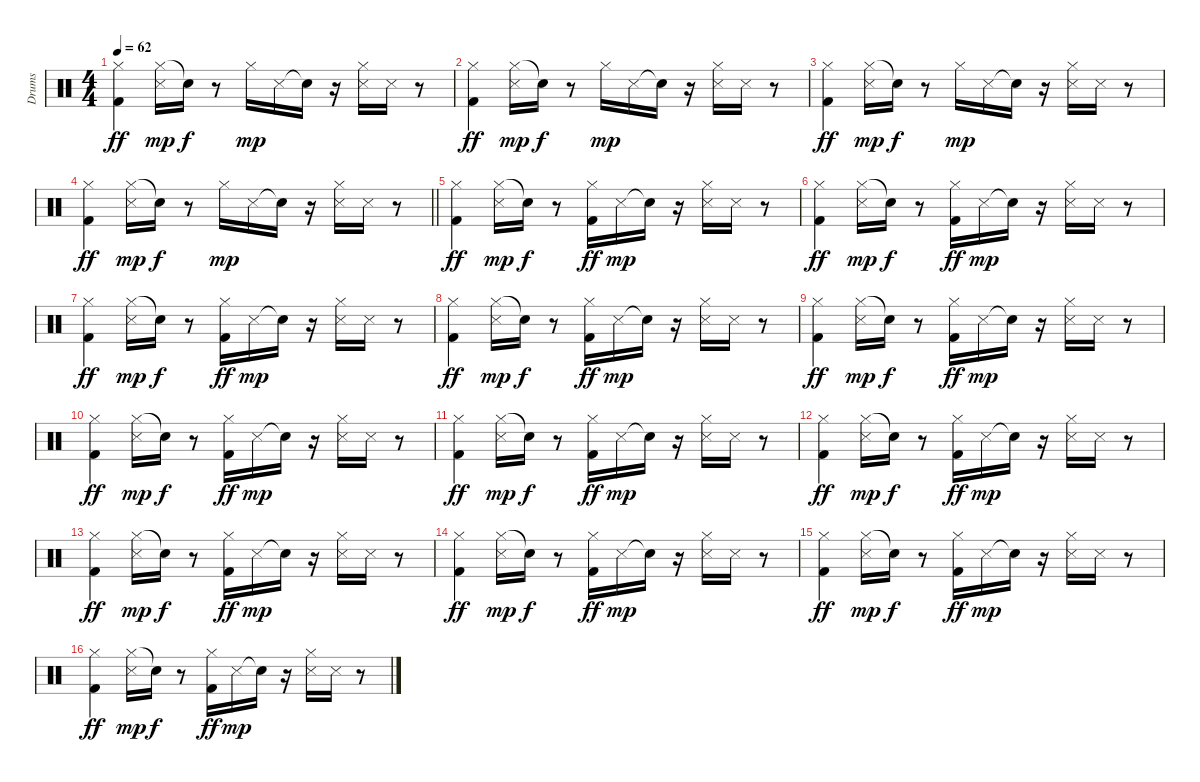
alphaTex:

\track ("Drums" "Drums") {instrument percussion}
\staff {score}
\articulation defaults
\ts (4 4)
\tempo 62
\clef neutral
\ks c
("Hi-Hat (closed)" "Kick (hit) 2").4{dy ff} ("Hi-Hat (closed)" "Snare (side stick) 3").16{dy mp} "Snare (hit)"{t}.16{dy f} r.8 "Hi-Hat (closed)".16{dy mp} "Snare (side stick) 3".16 "Snare (hit)"{t}.16 r.16 ("Hi-Hat (closed)" "Snare (side stick) 3").16 "Snare (side stick) 3".16 r.8 |
("Hi-Hat (closed)" "Kick (hit) 2").4{dy ff} ("Hi-Hat (closed)" "Snare (side stick) 3").16{dy mp} "Snare (hit)"{t}.16{dy f} r.8 "Hi-Hat (closed)".16{dy mp} "Snare (side stick) 3".16 "Snare (hit)"{t}.16 r.16 ("Hi-Hat (closed)" "Snare (side stick) 3").16 "Snare (side stick) 3".16 r.8 |
("Hi-Hat (closed)" "Kick (hit) 2").4{dy ff} ("Hi-Hat (closed)" "Snare (side stick) 3").16{dy mp} "Snare (hit)"{t}.16{dy f} r.8 "Hi-Hat (closed)".16{dy mp} "Snare (side stick) 3".16 "Snare (hit)"{t}.16 r.16 ("Hi-Hat (closed)" "Snare (side stick) 3").16 "Snare (side stick) 3".16 r.8 |
\barLineRight lightlight
("Hi-Hat (closed)" "Kick (hit) 2").4{dy ff} ("Hi-Hat (closed)" "Snare (side stick) 3").16{dy mp} "Snare (hit)"{t}.16{dy f} r.8 "Hi-Hat (closed)".16{dy mp} "Snare (side stick) 3".16 "Snare (hit)"{t}.16 r.16 ("Hi-Hat (closed)" "Snare (side stick) 3").16 "Snare (side stick) 3".16 r.8 |
\section ("" "")
("Hi-Hat (closed)" "Kick (hit) 2").4{dy ff} ("Hi-Hat (closed)" "Snare (side stick) 3").16{dy mp} "Snare (hit)"{t}.16{dy f} r.8 ("Hi-Hat (closed)" "Kick (hit) 2").16{dy ff} "Snare (side stick) 3".16{dy mp} "Snare (hit)"{t}.16 r.16 ("Hi-Hat (closed)" "Snare (side stick) 3").16 "Snare (side stick) 3".16 r.8 |
("Hi-Hat (closed)" "Kick (hit) 2").4{dy ff} ("Hi-Hat (closed)" "Snare (side stick) 3").16{dy mp} "Snare (hit)"{t}.16{dy f} r.8 ("Hi-Hat (closed)" "Kick (hit) 2").16{dy ff} "Snare (side stick) 3".16{dy mp} "Snare (hit)"{t}.16 r.16 ("Hi-Hat (closed)" "Snare (side stick) 3").16 "Snare (side stick) 3".16 r.8 |
("Hi-Hat (closed)" "Kick (hit) 2").4{dy ff} ("Hi-Hat (closed)" "Snare (side stick) 3").16{dy mp} "Snare (hit)"{t}.16{dy f} r.8 ("Hi-Hat (closed)" "Kick (hit) 2").16{dy ff} "Snare (side stick) 3".16{dy mp} "Snare (hit)"{t}.16 r.16 ("Hi-Hat (closed)" "Snare (side stick) 3").16 "Snare (side stick) 3".16 r.8 |
("Hi-Hat (closed)" "Kick (hit) 2").4{dy ff} ("Hi-Hat (closed)" "Snare (side stick) 3").16{dy mp} "Snare (hit)"{t}.16{dy f} r.8 ("Hi-Hat (closed)" "Kick (hit) 2").16{dy ff} "Snare (side stick) 3".16{dy mp} "Snare (hit)"{t}.16 r.16 ("Hi-Hat (closed)" "Snare (side stick) 3").16 "Snare (side stick) 3".16 r.8 |
("Hi-Hat (closed)" "Kick (hit) 2").4{dy ff} ("Hi-Hat (closed)" "Snare (side stick) 3").16{dy mp} "Snare (hit)"{t}.16{dy f} r.8 ("Hi-Hat (closed)" "Kick (hit) 2").16{dy ff} "Snare (side stick) 3".16{dy mp} "Snare (hit)"{t}.16 r.16 ("Hi-Hat (closed)" "Snare (side stick) 3").16 "Snare (side stick) 3".16 r.8 |
("Hi-Hat (closed)" "Kick (hit) 2").4{dy ff} ("Hi-Hat (closed)" "Snare (side stick) 3").16{dy mp} "Snare (hit)"{t}.16{dy f} r.8 ("Hi-Hat (closed)" "Kick (hit) 2").16{dy ff} "Snare (side stick) 3".16{dy mp} "Snare (hit)"{t}.16 r.16 ("Hi-Hat (closed)" "Snare (side stick) 3").16 "Snare (side stick) 3".16 r.8 |
("Hi-Hat (closed)" "Kick (hit) 2").4{dy ff} ("Hi-Hat (closed)" "Snare (side stick) 3").16{dy mp} "Snare (hit)"{t}.16{dy f} r.8 ("Hi-Hat (closed)" "Kick (hit) 2").16{dy ff} "Snare (side stick) 3".16{dy mp} "Snare (hit)"{t}.16 r.16 ("Hi-Hat (closed)" "Snare (side stick) 3").16 "Snare (side stick) 3".16 r.8 |
("Hi-Hat (closed)" "Kick (hit) 2").4{dy ff} ("Hi-Hat (closed)" "Snare (side stick) 3").16{dy mp} "Snare (hit)"{t}.16{dy f} r.8 ("Hi-Hat (closed)" "Kick (hit) 2").16{dy ff} "Snare (side stick) 3".16{dy mp} "Snare (hit)"{t}.16 r.16 ("Hi-Hat (closed)" "Snare (side stick) 3").16 "Snare (side stick) 3".16 r.8 |
("Hi-Hat (closed)" "Kick (hit) 2").4{dy ff} ("Hi-Hat (closed)" "Snare (side stick) 3").16{dy mp} "Snare (hit)"{t}.16{dy f} r.8 ("Hi-Hat (closed)" "Kick (hit) 2").16{dy ff} "Snare (side stick) 3".16{dy mp} "Snare (hit)"{t}.16 r.16 ("Hi-Hat (closed)" "Snare (side stick) 3").16 "Snare (side stick) 3".16 r.8 |
("Hi-Hat (closed)" "Kick (hit) 2").4{dy ff} ("Hi-Hat (closed)" "Snare (side stick) 3").16{dy mp} "Snare (hit)"{t}.16{dy f} r.8 ("Hi-Hat (closed)" "Kick (hit) 2").16{dy ff} "Snare (side stick) 3".16{dy mp} "Snare (hit)"{t}.16 r.16 ("Hi-Hat (closed)" "Snare (side stick) 3").16 "Snare (side stick) 3".16 r.8 |
("Hi-Hat (closed)" "Kick (hit) 2").4{dy ff} ("Hi-Hat (closed)" "Snare (side stick) 3").16{dy mp} "Snare (hit)"{t}.16{dy f} r.8 ("Hi-Hat (closed)" "Kick (hit) 2").16{dy ff} "Snare (side stick) 3".16{dy mp} "Snare (hit)"{t}.16 r.16 ("Hi-Hat (closed)" "Snare (side stick) 3").16 "Snare (side stick) 3".16 r.8 |
("Hi-Hat (closed)" "Kick (hit) 2").4{dy ff} ("Hi-Hat (closed)" "Snare (side stick) 3").16{dy mp} "Snare (hit)"{t}.16{dy f} r.8 ("Hi-Hat (closed)" "Kick (hit) 2").16{dy ff} "Snare (side stick) 3".16{dy mp} "Snare (hit)"{t}.16 r.16 ("Hi-Hat (closed)" "Snare (side stick) 3").16 "Snare (side stick) 3".16 r.8
